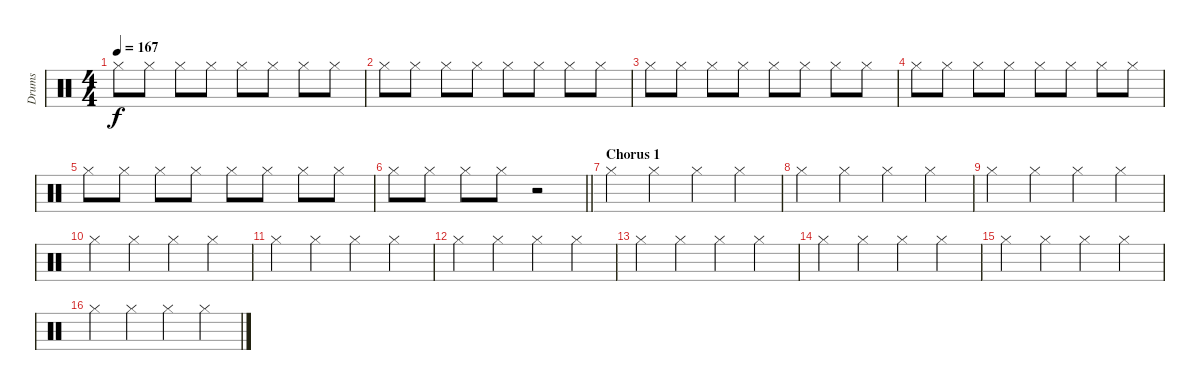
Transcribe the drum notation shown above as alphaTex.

\track ("Drums" "Drums") {instrument percussion}
\staff {score}
\articulation defaults
\ts (4 4)
\tempo 167
\clef neutral
\ks c "Hi-Hat (closed)".8{dy f} "Hi-Hat (closed)".8 "Hi-Hat (closed)".8 "Hi-Hat (closed)".8 "Hi-Hat (closed)".8 "Hi-Hat (closed)".8 "Hi-Hat (closed)".8 "Hi-Hat (closed)".8
|
"Hi-Hat (closed)".8 "Hi-Hat (closed)".8 "Hi-Hat (closed)".8 "Hi-Hat (closed)".8 "Hi-Hat (closed)".8 "Hi-Hat (closed)".8 "Hi-Hat (closed)".8 "Hi-Hat (closed)".8 |
"Hi-Hat (closed)".8 "Hi-Hat (closed)".8 "Hi-Hat (closed)".8 "Hi-Hat (closed)".8 "Hi-Hat (closed)".8 "Hi-Hat (closed)".8 "Hi-Hat (closed)".8 "Hi-Hat (closed)".8 |
"Hi-Hat (closed)".8 "Hi-Hat (closed)".8 "Hi-Hat (closed)".8 "Hi-Hat (closed)".8 "Hi-Hat (closed)".8 "Hi-Hat (closed)".8 "Hi-Hat (closed)".8 "Hi-Hat (closed)".8 |
"Hi-Hat (closed)".8 "Hi-Hat (closed)".8 "Hi-Hat (closed)".8 "Hi-Hat (closed)".8 "Hi-Hat (closed)".8 "Hi-Hat (closed)".8 "Hi-Hat (closed)".8 "Hi-Hat (closed)".8 |
\barLineRight lightlight "Hi-Hat (closed)".8 "Hi-Hat (closed)".8 "Hi-Hat (closed)".8 "Hi-Hat (closed)".8
r.2 |
\section ("" "Chorus 1")
"Hi-Hat (closed)".4 "Hi-Hat (closed)".4 "Hi-Hat (closed)".4 "Hi-Hat (closed)".4 |
"Hi-Hat (closed)".4 "Hi-Hat (closed)".4 "Hi-Hat (closed)".4 "Hi-Hat (closed)".4 |
"Hi-Hat (closed)".4 "Hi-Hat (closed)".4 "Hi-Hat (closed)".4 "Hi-Hat (closed)".4 |
"Hi-Hat (closed)".4 "Hi-Hat (closed)".4 "Hi-Hat (closed)".4 "Hi-Hat (closed)".4 |
"Hi-Hat (closed)".4 "Hi-Hat (closed)".4 "Hi-Hat (closed)".4 "Hi-Hat (closed)".4 |
"Hi-Hat (closed)".4 "Hi-Hat (closed)".4 "Hi-Hat (closed)".4 "Hi-Hat (closed)".4 |
"Hi-Hat (closed)".4 "Hi-Hat (closed)".4 "Hi-Hat (closed)".4 "Hi-Hat (closed)".4 |
"Hi-Hat (closed)".4 "Hi-Hat (closed)".4 "Hi-Hat (closed)".4 "Hi-Hat (closed)".4 |
"Hi-Hat (closed)".4 "Hi-Hat (closed)".4 "Hi-Hat (closed)".4 "Hi-Hat (closed)".4 |
"Hi-Hat (closed)".4 "Hi-Hat (closed)".4 "Hi-Hat (closed)".4 "Hi-Hat (closed)".4
